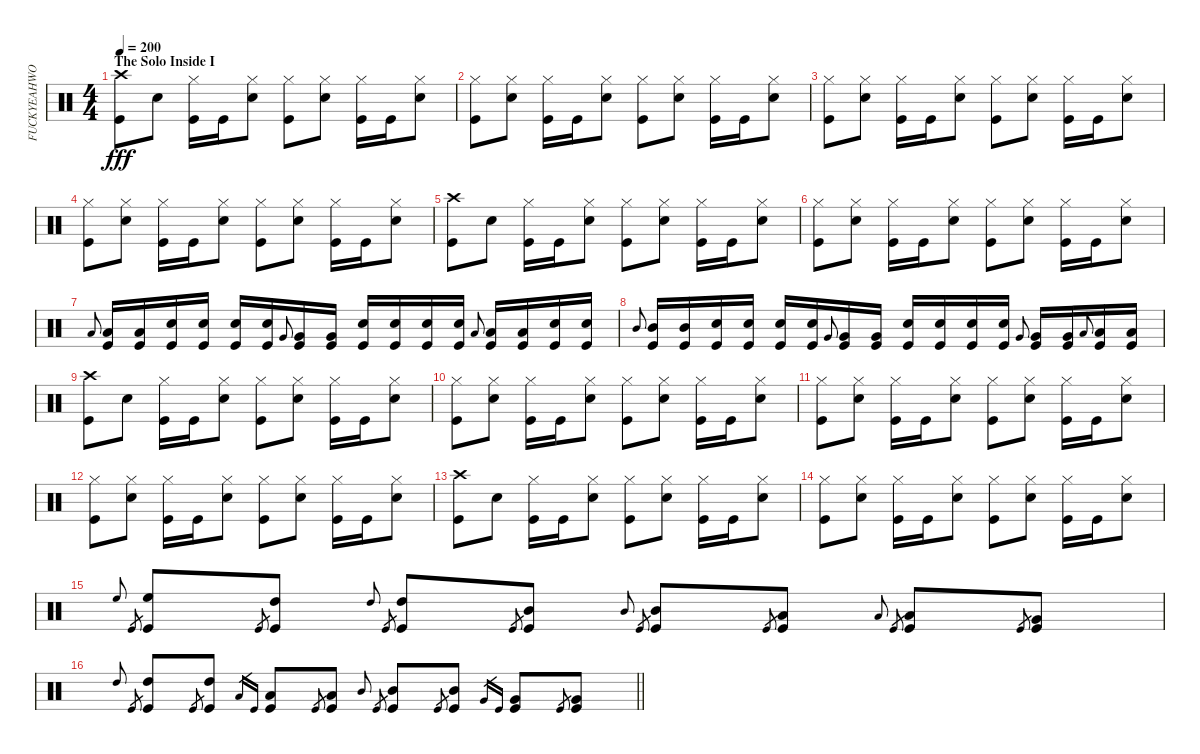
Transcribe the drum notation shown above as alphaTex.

\track ("FUCKYEAHWOOTDAVEMACKINTOSH!(Percussion)" "FUCKYEAHWO") {instrument percussion}
\staff {score}
\articulation defaults
\ts (4 4)
\section ("" "The Solo Inside I")
\tempo 200
\clef neutral
\ks c
("Kick (hit)" "Crash high (hit)").8{dy fff} "Snare (hit) 2".8 ("Kick (hit)" "Hi-Hat (closed)").16 "Kick (hit)".16 ("Snare (hit) 2" "Hi-Hat (closed)").8 ("Kick (hit)" "Hi-Hat (closed)").8 ("Snare (hit) 2" "Hi-Hat (closed)").8 ("Kick (hit)" "Hi-Hat (closed)").16 "Kick (hit)".16 ("Snare (hit) 2" "Hi-Hat (closed)").8 |
("Kick (hit)" "Hi-Hat (closed)").8 ("Snare (hit) 2" "Hi-Hat (closed)").8 ("Kick (hit)" "Hi-Hat (closed)").16 "Kick (hit)".16 ("Snare (hit) 2" "Hi-Hat (closed)").8 ("Kick (hit)" "Hi-Hat (closed)").8 ("Snare (hit) 2" "Hi-Hat (closed)").8 ("Kick (hit)" "Hi-Hat (closed)").16 "Kick (hit)".16 ("Snare (hit) 2" "Hi-Hat (closed)").8 |
("Kick (hit)" "Hi-Hat (closed)").8 ("Snare (hit) 2" "Hi-Hat (closed)").8 ("Kick (hit)" "Hi-Hat (closed)").16 "Kick (hit)".16 ("Snare (hit) 2" "Hi-Hat (closed)").8 ("Kick (hit)" "Hi-Hat (closed)").8 ("Snare (hit) 2" "Hi-Hat (closed)").8 ("Kick (hit)" "Hi-Hat (closed)").16 "Kick (hit)".16 ("Snare (hit) 2" "Hi-Hat (closed)").8 |
("Kick (hit)" "Hi-Hat (closed)").8 ("Snare (hit) 2" "Hi-Hat (closed)").8 ("Kick (hit)" "Hi-Hat (closed)").16 "Kick (hit)".16 ("Snare (hit) 2" "Hi-Hat (closed)").8 ("Kick (hit)" "Hi-Hat (closed)").8 ("Snare (hit) 2" "Hi-Hat (closed)").8 ("Kick (hit)" "Hi-Hat (closed)").16 "Kick (hit)".16 ("Snare (hit) 2" "Hi-Hat (closed)").8 |
("Kick (hit)" "Crash high (hit)").8 "Snare (hit) 2".8 ("Kick (hit)" "Hi-Hat (closed)").16 "Kick (hit)".16 ("Snare (hit) 2" "Hi-Hat (closed)").8 ("Kick (hit)" "Hi-Hat (closed)").8 ("Snare (hit) 2" "Hi-Hat (closed)").8 ("Kick (hit)" "Hi-Hat (closed)").16 "Kick (hit)".16 ("Snare (hit) 2" "Hi-Hat (closed)").8 |
("Kick (hit)" "Hi-Hat (closed)").8 ("Snare (hit) 2" "Hi-Hat (closed)").8 ("Kick (hit)" "Hi-Hat (closed)").16 "Kick (hit)".16 ("Snare (hit) 2" "Hi-Hat (closed)").8 ("Kick (hit)" "Hi-Hat (closed)").8 ("Snare (hit) 2" "Hi-Hat (closed)").8 ("Kick (hit)" "Hi-Hat (closed)").16 "Kick (hit)".16 ("Snare (hit) 2" "Hi-Hat (closed)").8 |
"Low Tom (hit)".8{gr onbeat} ("Low Tom (hit)" "Kick (hit)").16 ("Low Tom (hit)" "Kick (hit)").16 ("Snare (hit) 2" "Kick (hit)").16 ("Snare (hit) 2" "Kick (hit)").16 ("Snare (hit) 2" "Kick (hit)").16 ("Snare (hit) 2" "Kick (hit)").16 "Very Low Tom (hit)".8{gr onbeat} ("Very Low Tom (hit)" "Kick (hit)").16 ("Very Low Tom (hit)" "Kick (hit)").16 ("Snare (hit) 2" "Kick (hit)").16 ("Snare (hit) 2" "Kick (hit)").16 ("Kick (hit)" "Snare (hit) 2").16 ("Snare (hit) 2" "Kick (hit)").16 "Low Tom (hit)".8{gr onbeat} ("Low Tom (hit)" "Kick (hit)").16 ("Low Tom (hit)" "Kick (hit)").16 ("Snare (hit) 2" "Kick (hit)").16 ("Snare (hit) 2" "Kick (hit)").16 |
"Mid Tom (hit)".8{gr onbeat} ("Mid Tom (hit)" "Kick (hit)").16 ("Mid Tom (hit)" "Kick (hit)").16 ("Snare (hit) 2" "Kick (hit)").16 ("Snare (hit) 2" "Kick (hit)").16 ("Kick (hit)" "Snare (hit) 2").16 ("Snare (hit) 2" "Kick (hit)").16 "Very Low Tom (hit)".8{gr onbeat} ("Very Low Tom (hit)" "Kick (hit)").16 ("Very Low Tom (hit)" "Kick (hit)").16 ("Snare (hit) 2" "Kick (hit)").16 ("Snare (hit) 2" "Kick (hit)").16 ("Snare (hit) 2" "Kick (hit)").16 ("Snare (hit) 2" "Kick (hit)").16 "Very Low Tom (hit)".8{gr onbeat} ("Very Low Tom (hit)" "Kick (hit)").16 ("Very Low Tom (hit)" "Kick (hit)").16 "Low Floor Tom (hit)".8{gr onbeat} ("Low Floor Tom (hit)" "Kick (hit)").16 ("Low Floor Tom (hit)" "Kick (hit)").16 |
("Kick (hit)" "Crash high (hit)").8 "Snare (hit) 2".8 ("Kick (hit)" "Hi-Hat (closed)").16 "Kick (hit)".16 ("Snare (hit) 2" "Hi-Hat (closed)").8 ("Kick (hit)" "Hi-Hat (closed)").8 ("Snare (hit) 2" "Hi-Hat (closed)").8 ("Kick (hit)" "Hi-Hat (closed)").16 "Kick (hit)".16 ("Snare (hit) 2" "Hi-Hat (closed)").8 |
("Kick (hit)" "Hi-Hat (closed)").8 ("Snare (hit) 2" "Hi-Hat (closed)").8 ("Kick (hit)" "Hi-Hat (closed)").16 "Kick (hit)".16 ("Snare (hit) 2" "Hi-Hat (closed)").8 ("Kick (hit)" "Hi-Hat (closed)").8 ("Snare (hit) 2" "Hi-Hat (closed)").8 ("Kick (hit)" "Hi-Hat (closed)").16 "Kick (hit)".16 ("Snare (hit) 2" "Hi-Hat (closed)").8 |
("Kick (hit)" "Hi-Hat (closed)").8 ("Snare (hit) 2" "Hi-Hat (closed)").8 ("Kick (hit)" "Hi-Hat (closed)").16 "Kick (hit)".16 ("Snare (hit) 2" "Hi-Hat (closed)").8 ("Kick (hit)" "Hi-Hat (closed)").8 ("Snare (hit) 2" "Hi-Hat (closed)").8 ("Kick (hit)" "Hi-Hat (closed)").16 "Kick (hit)".16 ("Snare (hit) 2" "Hi-Hat (closed)").8 |
("Kick (hit)" "Hi-Hat (closed)").8 ("Snare (hit) 2" "Hi-Hat (closed)").8 ("Kick (hit)" "Hi-Hat (closed)").16 "Kick (hit)".16 ("Snare (hit) 2" "Hi-Hat (closed)").8 ("Kick (hit)" "Hi-Hat (closed)").8 ("Snare (hit) 2" "Hi-Hat (closed)").8 ("Kick (hit)" "Hi-Hat (closed)").16 "Kick (hit)".16 ("Snare (hit) 2" "Hi-Hat (closed)").8 |
("Kick (hit)" "Crash high (hit)").8 "Snare (hit) 2".8 ("Kick (hit)" "Hi-Hat (closed)").16 "Kick (hit)".16 ("Snare (hit) 2" "Hi-Hat (closed)").8 ("Kick (hit)" "Hi-Hat (closed)").8 ("Snare (hit) 2" "Hi-Hat (closed)").8 ("Kick (hit)" "Hi-Hat (closed)").16 "Kick (hit)".16 ("Snare (hit) 2" "Hi-Hat (closed)").8 |
("Kick (hit)" "Hi-Hat (closed)").8 ("Snare (hit) 2" "Hi-Hat (closed)").8 ("Kick (hit)" "Hi-Hat (closed)").16 "Kick (hit)".16 ("Snare (hit) 2" "Hi-Hat (closed)").8 ("Kick (hit)" "Hi-Hat (closed)").8 ("Snare (hit) 2" "Hi-Hat (closed)").8 ("Kick (hit)" "Hi-Hat (closed)").16 "Kick (hit)".16 ("Snare (hit) 2" "Hi-Hat (closed)").8 |
"High Floor Tom (hit)".16{gr onbeat} "Kick (hit)".16{gr} ("High Floor Tom (hit)" "Kick (hit)").8 "Kick (hit)".8{gr} ("High Tom (hit)" "Kick (hit)").8 "High Tom (hit)".16{gr onbeat} "Kick (hit)".16{gr} ("High Tom (hit)" "Kick (hit)").8 "Kick (hit)".8{gr} ("Mid Tom (hit)" "Kick (hit)").8 "Mid Tom (hit)".16{gr onbeat} "Kick (hit)".16{gr} ("Mid Tom (hit)" "Kick (hit)").8 "Kick (hit)".8{gr} ("Low Tom (hit)" "Kick (hit)").8 "Low Tom (hit)".16{gr onbeat} "Kick (hit)".16{gr} ("Low Tom (hit)" "Kick (hit)").8 "Kick (hit)".8{gr} ("Very Low Tom (hit)" "Kick (hit)").8 |
\barLineRight lightlight "High Tom (hit)".16{gr onbeat} "Kick (hit)".16{gr}
("High Tom (hit)" "Kick (hit)").8 "Kick (hit)".8{gr} ("High Tom (hit)" "Kick (hit)").8 "Low Tom (hit)".16{gr} "Kick (hit)".16{gr} ("Low Tom (hit)" "Kick (hit)").8 "Kick (hit)".8{gr} ("Low Tom (hit)" "Kick (hit)").8 "Mid Tom (hit)".16{gr onbeat} "Kick (hit)".16{gr} ("Mid Tom (hit)" "Kick (hit)").8 "Kick (hit)".8{gr} ("Mid Tom (hit)" "Kick (hit)").8 "Very Low Tom (hit)".16{gr} "Kick (hit)".16{gr} ("Very Low Tom (hit)" "Kick (hit)").8 "Kick (hit)".8{gr} ("Very Low Tom (hit)" "Kick (hit)").8
